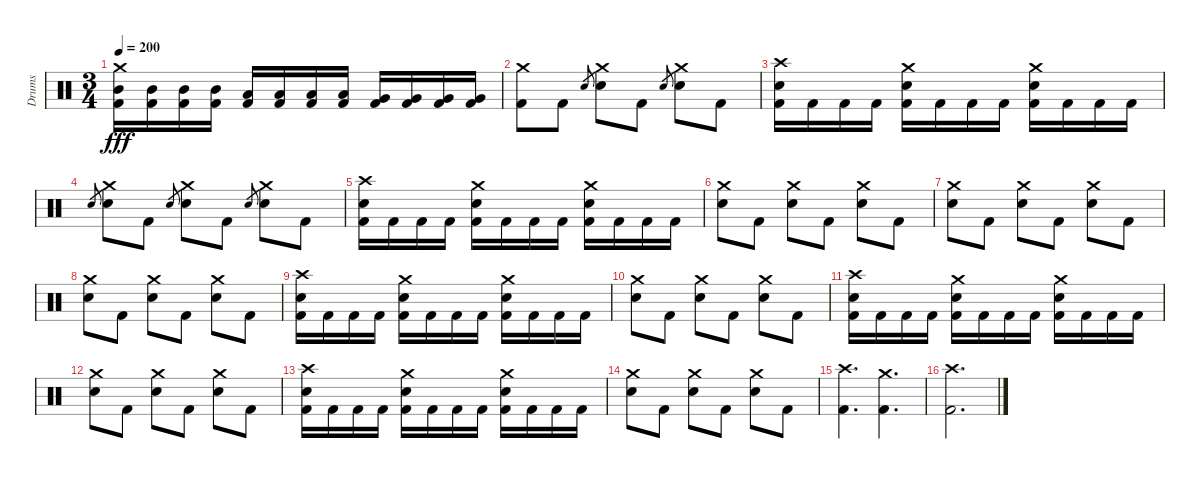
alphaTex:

\track ("Drums" "Drums") {instrument percussion}
\staff {score}
\articulation defaults
\ts (3 4)
\tempo 200
\clef neutral
\ks c
("Crash medium (hit)" "Mid Tom (hit)" "Kick (hit) 2").16{dy fff} ("Mid Tom (hit)" "Kick (hit) 2").16 ("Mid Tom (hit)" "Kick (hit) 2").16 ("Mid Tom (hit)" "Kick (hit) 2").16 ("Low Tom (hit)" "Kick (hit) 2").16 ("Low Tom (hit)" "Kick (hit) 2").16 ("Low Tom (hit)" "Kick (hit) 2").16 ("Low Tom (hit)" "Kick (hit) 2").16 ("Very Low Tom (hit)" "Kick (hit) 2").16 ("Very Low Tom (hit)" "Kick (hit) 2").16 ("Very Low Tom (hit)" "Kick (hit) 2").16 ("Very Low Tom (hit)" "Kick (hit) 2").16 |
("Crash medium (hit)" "Kick (hit) 2").8 "Kick (hit) 2".8 "Snare (hit) 2".8{gr} ("Crash medium (hit)" "Snare (hit) 2").8 "Kick (hit) 2".8 "Snare (hit) 2".8{gr} ("Crash medium (hit)" "Snare (hit) 2").8 "Kick (hit) 2".8 |
("Crash high (hit)" "Snare (hit) 2" "Kick (hit) 2").16 "Kick (hit) 2".16 "Kick (hit) 2".16 "Kick (hit) 2".16 ("Crash medium (hit)" "Snare (hit) 2" "Kick (hit) 2").16 "Kick (hit) 2".16 "Kick (hit) 2".16 "Kick (hit) 2".16 ("Crash medium (hit)" "Snare (hit) 2" "Kick (hit) 2").16 "Kick (hit) 2".16 "Kick (hit) 2".16 "Kick (hit) 2".16 |
"Snare (hit) 2".8{gr} ("Crash medium (hit)" "Snare (hit) 2").8 "Kick (hit) 2".8 "Snare (hit) 2".8{gr} ("Crash medium (hit)" "Snare (hit) 2").8 "Kick (hit) 2".8 "Snare (hit) 2".8{gr} ("Crash medium (hit)" "Snare (hit) 2").8 "Kick (hit) 2".8 |
("Crash high (hit)" "Snare (hit) 2" "Kick (hit) 2").16 "Kick (hit) 2".16 "Kick (hit) 2".16 "Kick (hit) 2".16 ("Crash medium (hit)" "Snare (hit) 2" "Kick (hit) 2").16 "Kick (hit) 2".16 "Kick (hit) 2".16 "Kick (hit) 2".16 ("Crash medium (hit)" "Snare (hit) 2" "Kick (hit) 2").16 "Kick (hit) 2".16 "Kick (hit) 2".16 "Kick (hit) 2".16 |
("Crash medium (hit)" "Snare (hit) 2").8 "Kick (hit) 2".8 ("Crash medium (hit)" "Snare (hit) 2").8 "Kick (hit) 2".8 ("Crash medium (hit)" "Snare (hit) 2").8 "Kick (hit) 2".8 |
("Crash medium (hit)" "Snare (hit) 2").8 "Kick (hit) 2".8 ("Crash medium (hit)" "Snare (hit) 2").8 "Kick (hit) 2".8 ("Crash medium (hit)" "Snare (hit) 2").8 "Kick (hit) 2".8 |
("Crash medium (hit)" "Snare (hit) 2").8 "Kick (hit) 2".8 ("Crash medium (hit)" "Snare (hit) 2").8 "Kick (hit) 2".8 ("Crash medium (hit)" "Snare (hit) 2").8 "Kick (hit) 2".8 |
("Crash high (hit)" "Snare (hit) 2" "Kick (hit) 2").16 "Kick (hit) 2".16 "Kick (hit) 2".16 "Kick (hit) 2".16 ("Crash medium (hit)" "Snare (hit) 2" "Kick (hit) 2").16 "Kick (hit) 2".16 "Kick (hit) 2".16 "Kick (hit) 2".16 ("Crash medium (hit)" "Snare (hit) 2" "Kick (hit) 2").16 "Kick (hit) 2".16 "Kick (hit) 2".16 "Kick (hit) 2".16 |
("Crash medium (hit)" "Snare (hit) 2").8 "Kick (hit) 2".8 ("Crash medium (hit)" "Snare (hit) 2").8 "Kick (hit) 2".8 ("Crash medium (hit)" "Snare (hit) 2").8 "Kick (hit) 2".8 |
("Crash high (hit)" "Snare (hit) 2" "Kick (hit) 2").16 "Kick (hit) 2".16 "Kick (hit) 2".16 "Kick (hit) 2".16 ("Crash medium (hit)" "Snare (hit) 2" "Kick (hit) 2").16 "Kick (hit) 2".16 "Kick (hit) 2".16 "Kick (hit) 2".16 ("Crash medium (hit)" "Snare (hit) 2" "Kick (hit) 2").16 "Kick (hit) 2".16 "Kick (hit) 2".16 "Kick (hit) 2".16 |
("Crash medium (hit)" "Snare (hit) 2").8 "Kick (hit) 2".8 ("Crash medium (hit)" "Snare (hit) 2").8 "Kick (hit) 2".8 ("Crash medium (hit)" "Snare (hit) 2").8 "Kick (hit) 2".8 |
("Crash high (hit)" "Snare (hit) 2" "Kick (hit) 2").16 "Kick (hit) 2".16 "Kick (hit) 2".16 "Kick (hit) 2".16 ("Crash medium (hit)" "Snare (hit) 2" "Kick (hit) 2").16 "Kick (hit) 2".16 "Kick (hit) 2".16 "Kick (hit) 2".16 ("Crash medium (hit)" "Snare (hit) 2" "Kick (hit) 2").16 "Kick (hit) 2".16 "Kick (hit) 2".16 "Kick (hit) 2".16 |
("Crash medium (hit)" "Snare (hit) 2").8 "Kick (hit) 2".8 ("Crash medium (hit)" "Snare (hit) 2").8 "Kick (hit) 2".8 ("Crash medium (hit)" "Snare (hit) 2").8 "Kick (hit) 2".8 |
("Crash high (hit)" "Kick (hit) 2").4{d} ("Crash medium (hit)" "Kick (hit) 2").4{d} |
("Crash high (hit)" "Kick (hit) 2").2{d}
